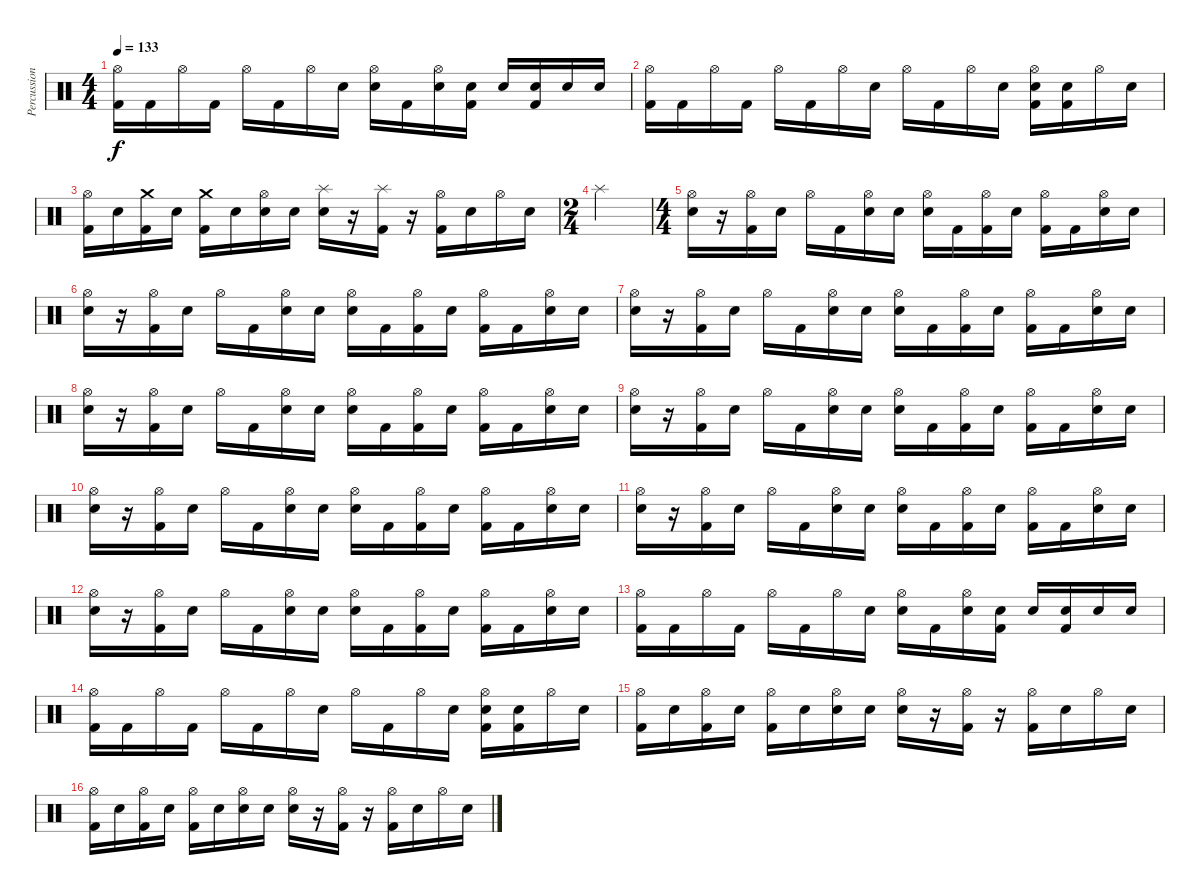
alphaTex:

\track ("Percussion" "Percussion") {instrument percussion}
\staff {score}
\articulation defaults
\ts (4 4)
\tempo 133
\clef neutral
\ks c
("Hi-Hat (open)" "Kick (hit) 2").16{dy f} "Kick (hit) 2".16 "Hi-Hat (open)".16 "Kick (hit) 2".16 "Hi-Hat (open)".16 "Kick (hit) 2".16 "Hi-Hat (open)".16 "Snare (hit) 2"{x}.16 ("Hi-Hat (open)" "Snare (hit) 2").16 "Kick (hit) 2".16 ("Hi-Hat (open)" "Snare (hit) 2").16 ("Snare (hit) 2"{x} "Kick (hit) 2").16 "Snare (hit) 2".16 ("Snare (hit) 2" "Kick (hit) 2"{x}).16 "Snare (hit) 2".16 "Snare (hit) 2".16 |
("Hi-Hat (open)" "Kick (hit) 2").16 "Kick (hit) 2".16 "Hi-Hat (open)".16 "Kick (hit) 2".16 "Hi-Hat (open)".16 "Kick (hit) 2".16 "Hi-Hat (open)".16 "Snare (hit) 2"{x}.16 "Hi-Hat (open)".16 "Kick (hit) 2".16 "Hi-Hat (open)".16 "Snare (hit) 2".16 ("Hi-Hat (open)" "Snare (hit) 2" "Kick (hit) 2"{x}).16 ("Snare (hit) 2" "Kick (hit) 2"{x}).16 "Hi-Hat (open)".16 "Snare (hit) 2".16 |
("Hi-Hat (open)" "Kick (hit) 2").16 "Snare (hit) 2".16 ("Crash medium (hit)" "Kick (hit) 2").16 "Snare (hit)"{x}.16 ("Crash medium (hit)" "Kick (hit) 2").16 "Snare (hit) 2"{x}.16 ("Hi-Hat (open)" "Snare (hit) 2").16 "Snare (hit) 2"{x}.16 ("Splash (hit)" "Snare (hit) 2").16 r.16 ("Splash (hit)" "Kick (hit) 2").16 r.16 ("Hi-Hat (open)" "Kick (hit) 2").16 "Snare (hit) 2".16 "Hi-Hat (open)".16 "Snare (hit) 2"{x}.16 |
\ts (2 4)
"Splash (hit)".2 |
\ts (4 4)
("Hi-Hat (open)" "Snare (hit) 2").16 r.16 ("Hi-Hat (open)" "Kick (hit) 2").16 "Snare (hit) 2".16 "Hi-Hat (open)".16 "Kick (hit) 2".16 ("Hi-Hat (open)" "Snare (hit) 2").16 "Snare (hit) 2"{x}.16 ("Hi-Hat (open)" "Snare (hit) 2").16 "Kick (hit) 2"{x}.16 ("Hi-Hat (open)" "Kick (hit) 2").16 "Snare (hit) 2".16 ("Hi-Hat (open)" "Kick (hit) 2"{x}).16 "Kick (hit) 2".16 ("Hi-Hat (open)" "Snare (hit) 2").16 "Snare (hit)"{x}.16 |
("Hi-Hat (open)" "Snare (hit) 2").16 r.16 ("Hi-Hat (open)" "Kick (hit) 2").16 "Snare (hit) 2".16 "Hi-Hat (open)".16 "Kick (hit) 2".16 ("Hi-Hat (open)" "Snare (hit) 2").16 "Snare (hit) 2"{x}.16 ("Hi-Hat (open)" "Snare (hit) 2").16 "Kick (hit) 2"{x}.16 ("Hi-Hat (open)" "Kick (hit) 2").16 "Snare (hit) 2".16 ("Hi-Hat (open)" "Kick (hit) 2"{x}).16 "Kick (hit) 2".16 ("Hi-Hat (open)" "Snare (hit) 2").16 "Snare (hit)"{x}.16 |
("Hi-Hat (open)" "Snare (hit) 2").16 r.16 ("Hi-Hat (open)" "Kick (hit) 2").16 "Snare (hit) 2".16 "Hi-Hat (open)".16 "Kick (hit) 2".16 ("Hi-Hat (open)" "Snare (hit) 2").16 "Snare (hit) 2"{x}.16 ("Hi-Hat (open)" "Snare (hit) 2").16 "Kick (hit) 2"{x}.16 ("Hi-Hat (open)" "Kick (hit) 2").16 "Snare (hit) 2".16 ("Hi-Hat (open)" "Kick (hit) 2"{x}).16 "Kick (hit) 2".16 ("Hi-Hat (open)" "Snare (hit) 2").16 "Snare (hit)"{x}.16 |
("Hi-Hat (open)" "Snare (hit) 2").16 r.16 ("Hi-Hat (open)" "Kick (hit) 2").16 "Snare (hit) 2".16 "Hi-Hat (open)".16 "Kick (hit) 2".16 ("Hi-Hat (open)" "Snare (hit) 2").16 "Snare (hit) 2"{x}.16 ("Hi-Hat (open)" "Snare (hit) 2").16 "Kick (hit) 2"{x}.16 ("Hi-Hat (open)" "Kick (hit) 2").16 "Snare (hit) 2".16 ("Hi-Hat (open)" "Kick (hit) 2"{x}).16 "Kick (hit) 2".16 ("Hi-Hat (open)" "Snare (hit) 2").16 "Snare (hit)"{x}.16 |
("Hi-Hat (open)" "Snare (hit) 2").16 r.16 ("Hi-Hat (open)" "Kick (hit) 2").16 "Snare (hit) 2".16 "Hi-Hat (open)".16 "Kick (hit) 2".16 ("Hi-Hat (open)" "Snare (hit) 2").16 "Snare (hit) 2"{x}.16 ("Hi-Hat (open)" "Snare (hit) 2").16 "Kick (hit) 2"{x}.16 ("Hi-Hat (open)" "Kick (hit) 2").16 "Snare (hit) 2".16 ("Hi-Hat (open)" "Kick (hit) 2"{x}).16 "Kick (hit) 2".16 ("Hi-Hat (open)" "Snare (hit) 2").16 "Snare (hit)"{x}.16 |
("Hi-Hat (open)" "Snare (hit) 2").16 r.16 ("Hi-Hat (open)" "Kick (hit) 2").16 "Snare (hit) 2".16 "Hi-Hat (open)".16 "Kick (hit) 2".16 ("Hi-Hat (open)" "Snare (hit) 2").16 "Snare (hit) 2"{x}.16 ("Hi-Hat (open)" "Snare (hit) 2").16 "Kick (hit) 2"{x}.16 ("Hi-Hat (open)" "Kick (hit) 2").16 "Snare (hit) 2".16 ("Hi-Hat (open)" "Kick (hit) 2"{x}).16 "Kick (hit) 2".16 ("Hi-Hat (open)" "Snare (hit) 2").16 "Snare (hit)"{x}.16 |
("Hi-Hat (open)" "Snare (hit) 2").16 r.16 ("Hi-Hat (open)" "Kick (hit) 2").16 "Snare (hit) 2".16 "Hi-Hat (open)".16 "Kick (hit) 2".16 ("Hi-Hat (open)" "Snare (hit) 2").16 "Snare (hit) 2"{x}.16 ("Hi-Hat (open)" "Snare (hit) 2").16 "Kick (hit) 2"{x}.16 ("Hi-Hat (open)" "Kick (hit) 2").16 "Snare (hit) 2".16 ("Hi-Hat (open)" "Kick (hit) 2"{x}).16 "Kick (hit) 2".16 ("Hi-Hat (open)" "Snare (hit) 2").16 "Snare (hit)"{x}.16 |
("Hi-Hat (open)" "Snare (hit) 2").16 r.16 ("Hi-Hat (open)" "Kick (hit) 2").16 "Snare (hit) 2".16 "Hi-Hat (open)".16 "Kick (hit) 2".16 ("Hi-Hat (open)" "Snare (hit) 2").16 "Snare (hit) 2"{x}.16 ("Hi-Hat (open)" "Snare (hit) 2").16 "Kick (hit) 2"{x}.16 ("Hi-Hat (open)" "Kick (hit) 2").16 "Snare (hit) 2".16 ("Hi-Hat (open)" "Kick (hit) 2"{x}).16 "Kick (hit) 2".16 ("Hi-Hat (open)" "Snare (hit) 2").16 "Snare (hit)"{x}.16 |
("Hi-Hat (open)" "Kick (hit) 2").16 "Kick (hit) 2".16 "Hi-Hat (open)".16 "Kick (hit) 2".16 "Hi-Hat (open)".16 "Kick (hit) 2".16 "Hi-Hat (open)".16 "Snare (hit) 2"{x}.16 ("Hi-Hat (open)" "Snare (hit) 2").16 "Kick (hit) 2".16 ("Hi-Hat (open)" "Snare (hit) 2").16 ("Snare (hit) 2"{x} "Kick (hit) 2").16 "Snare (hit) 2".16 ("Snare (hit) 2" "Kick (hit) 2"{x}).16 "Snare (hit) 2".16 "Snare (hit) 2".16 |
("Hi-Hat (open)" "Kick (hit) 2").16 "Kick (hit) 2".16 "Hi-Hat (open)".16 "Kick (hit) 2".16 "Hi-Hat (open)".16 "Kick (hit) 2".16 "Hi-Hat (open)".16 "Snare (hit) 2"{x}.16 "Hi-Hat (open)".16 "Kick (hit) 2".16 "Hi-Hat (open)".16 "Snare (hit) 2".16 ("Hi-Hat (open)" "Snare (hit) 2" "Kick (hit) 2"{x}).16 ("Snare (hit) 2" "Kick (hit) 2"{x}).16 "Hi-Hat (open)".16 "Snare (hit) 2".16 |
("Hi-Hat (open)" "Kick (hit) 2").16 "Snare (hit) 2".16 ("Hi-Hat (open)" "Kick (hit) 2").16 "Snare (hit)"{x}.16 ("Hi-Hat (open)" "Kick (hit) 2").16 "Snare (hit) 2"{x}.16 ("Hi-Hat (open)" "Snare (hit) 2").16 "Snare (hit) 2"{x}.16 ("Hi-Hat (open)" "Snare (hit) 2").16 r.16 ("Hi-Hat (open)" "Kick (hit) 2").16 r.16 ("Hi-Hat (open)" "Kick (hit) 2").16 "Snare (hit) 2".16 "Hi-Hat (open)".16 "Snare (hit) 2"{x}.16 |
("Hi-Hat (open)" "Kick (hit) 2").16 "Snare (hit) 2".16 ("Hi-Hat (open)" "Kick (hit) 2").16 "Snare (hit)"{x}.16 ("Hi-Hat (open)" "Kick (hit) 2").16 "Snare (hit) 2"{x}.16 ("Hi-Hat (open)" "Snare (hit) 2").16 "Snare (hit) 2"{x}.16 ("Hi-Hat (open)" "Snare (hit) 2").16 r.16 ("Hi-Hat (open)" "Kick (hit) 2").16 r.16 ("Hi-Hat (open)" "Kick (hit) 2").16 "Snare (hit) 2".16 "Hi-Hat (open)".16 "Snare (hit) 2"{x}.16
